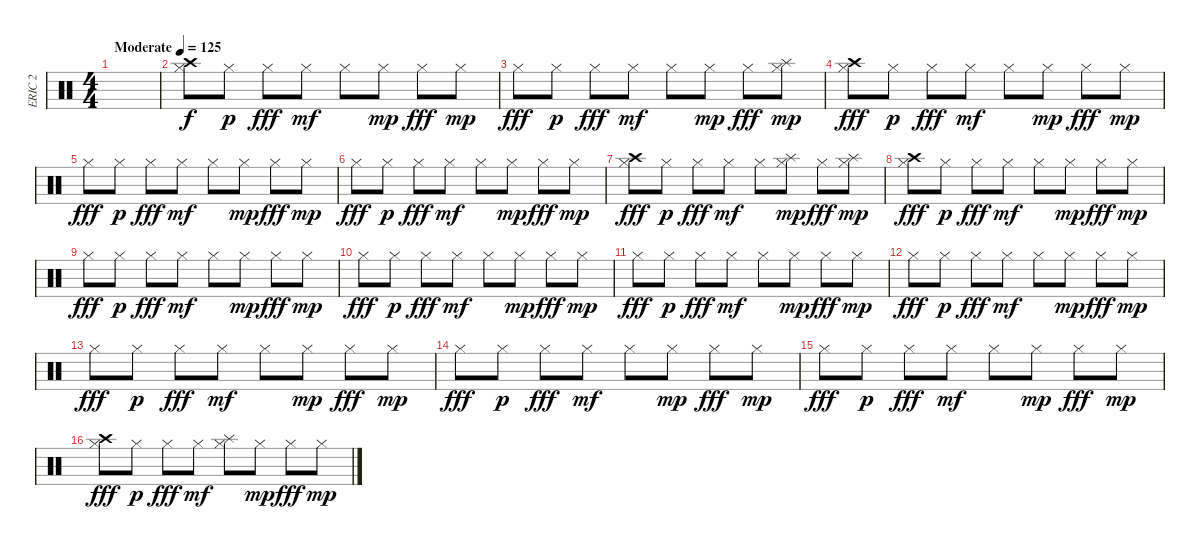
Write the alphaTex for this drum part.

\track ("ERIC 2" "ERIC 2") {instrument percussion}
\staff {score}
\articulation defaults
\ts (4 4)
\tempo (125 "Moderate")
\clef neutral
\ks c
|
("Crash high (hit)" "Hi-Hat (closed)").8 "Hi-Hat (closed)".8{dy p} "Hi-Hat (closed)".8{dy fff} "Hi-Hat (closed)".8{dy mf} "Hi-Hat (closed)".8 "Hi-Hat (closed)".8{dy mp} "Hi-Hat (closed)".8{dy fff} "Hi-Hat (closed)".8{dy mp} |
"Hi-Hat (closed)".8{dy fff} "Hi-Hat (closed)".8{dy p} "Hi-Hat (closed)".8{dy fff} "Hi-Hat (closed)".8{dy mf} "Hi-Hat (closed)".8 "Hi-Hat (closed)".8{dy mp} "Hi-Hat (closed)".8{dy fff} ("Splash (hit)" "Hi-Hat (closed)").8{dy mp} |
("Crash high (hit)" "Hi-Hat (closed)").8{dy fff} "Hi-Hat (closed)".8{dy p} "Hi-Hat (closed)".8{dy fff} "Hi-Hat (closed)".8{dy mf} "Hi-Hat (closed)".8 "Hi-Hat (closed)".8{dy mp} "Hi-Hat (closed)".8{dy fff} "Hi-Hat (closed)".8{dy mp} |
"Hi-Hat (closed)".8{dy fff} "Hi-Hat (closed)".8{dy p} "Hi-Hat (closed)".8{dy fff} "Hi-Hat (closed)".8{dy mf} "Hi-Hat (closed)".8 "Hi-Hat (closed)".8{dy mp} "Hi-Hat (closed)".8{dy fff} "Hi-Hat (closed)".8{dy mp} |
"Hi-Hat (closed)".8{dy fff} "Hi-Hat (closed)".8{dy p} "Hi-Hat (closed)".8{dy fff} "Hi-Hat (closed)".8{dy mf} "Hi-Hat (closed)".8 "Hi-Hat (closed)".8{dy mp} "Hi-Hat (closed)".8{dy fff} "Hi-Hat (closed)".8{dy mp} |
("Crash high (hit)" "Hi-Hat (closed)").8{dy fff} "Hi-Hat (closed)".8{dy p} "Hi-Hat (closed)".8{dy fff} "Hi-Hat (closed)".8{dy mf} "Hi-Hat (closed)".8 ("Splash (hit)" "Hi-Hat (closed)").8{dy mp} "Hi-Hat (closed)".8{dy fff} ("Splash (hit)" "Hi-Hat (closed)").8{dy mp} |
("Crash high (hit)" "Hi-Hat (closed)").8{dy fff} "Hi-Hat (closed)".8{dy p} "Hi-Hat (closed)".8{dy fff} "Hi-Hat (closed)".8{dy mf} "Hi-Hat (closed)".8 "Hi-Hat (closed)".8{dy mp} "Hi-Hat (closed)".8{dy fff} "Hi-Hat (closed)".8{dy mp} |
"Hi-Hat (closed)".8{dy fff} "Hi-Hat (closed)".8{dy p} "Hi-Hat (closed)".8{dy fff} "Hi-Hat (closed)".8{dy mf} "Hi-Hat (closed)".8 "Hi-Hat (closed)".8{dy mp} "Hi-Hat (closed)".8{dy fff} "Hi-Hat (closed)".8{dy mp} |
"Hi-Hat (closed)".8{dy fff} "Hi-Hat (closed)".8{dy p} "Hi-Hat (closed)".8{dy fff} "Hi-Hat (closed)".8{dy mf} "Hi-Hat (closed)".8 "Hi-Hat (closed)".8{dy mp} "Hi-Hat (closed)".8{dy fff} "Hi-Hat (closed)".8{dy mp} |
"Hi-Hat (closed)".8{dy fff} "Hi-Hat (closed)".8{dy p} "Hi-Hat (closed)".8{dy fff} "Hi-Hat (closed)".8{dy mf} "Hi-Hat (closed)".8 "Hi-Hat (closed)".8{dy mp} "Hi-Hat (closed)".8{dy fff} "Hi-Hat (closed)".8{dy mp} |
"Hi-Hat (closed)".8{dy fff} "Hi-Hat (closed)".8{dy p} "Hi-Hat (closed)".8{dy fff} "Hi-Hat (closed)".8{dy mf} "Hi-Hat (closed)".8 "Hi-Hat (closed)".8{dy mp} "Hi-Hat (closed)".8{dy fff} "Hi-Hat (closed)".8{dy mp} |
"Hi-Hat (closed)".8{dy fff} "Hi-Hat (closed)".8{dy p} "Hi-Hat (closed)".8{dy fff} "Hi-Hat (closed)".8{dy mf} "Hi-Hat (closed)".8 "Hi-Hat (closed)".8{dy mp} "Hi-Hat (closed)".8{dy fff} "Hi-Hat (closed)".8{dy mp} |
"Hi-Hat (closed)".8{dy fff} "Hi-Hat (closed)".8{dy p} "Hi-Hat (closed)".8{dy fff} "Hi-Hat (closed)".8{dy mf} "Hi-Hat (closed)".8 "Hi-Hat (closed)".8{dy mp} "Hi-Hat (closed)".8{dy fff} "Hi-Hat (closed)".8{dy mp} |
"Hi-Hat (closed)".8{dy fff} "Hi-Hat (closed)".8{dy p} "Hi-Hat (closed)".8{dy fff} "Hi-Hat (closed)".8{dy mf} "Hi-Hat (closed)".8 "Hi-Hat (closed)".8{dy mp} "Hi-Hat (closed)".8{dy fff} "Hi-Hat (closed)".8{dy mp} |
("Crash high (hit)" "Hi-Hat (closed)").8{dy fff} "Hi-Hat (closed)".8{dy p} "Hi-Hat (closed)".8{dy fff} "Hi-Hat (closed)".8{dy mf} ("Splash (hit)" "Hi-Hat (closed)").8 "Hi-Hat (closed)".8{dy mp} "Hi-Hat (closed)".8{dy fff} "Hi-Hat (closed)".8{dy mp}
